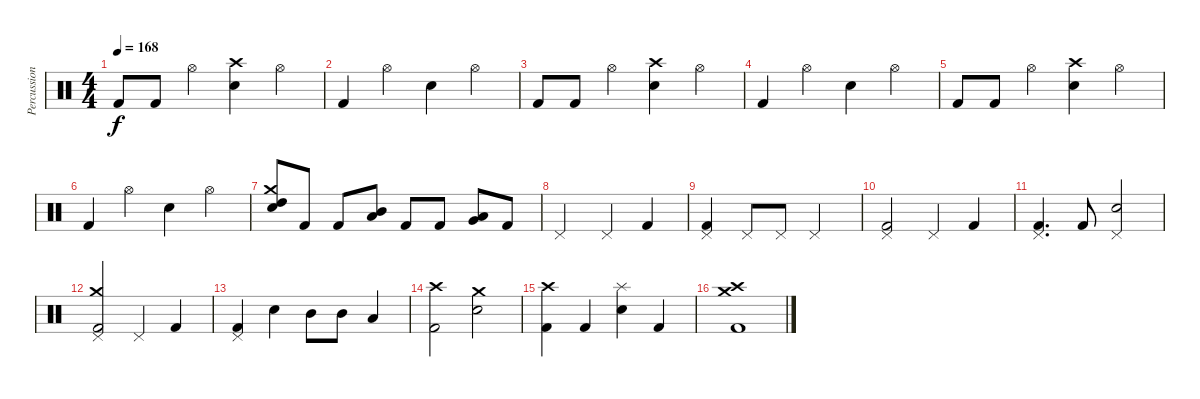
\track ("Percussions" "Percussion") {instrument percussion}
\staff {score}
\articulation defaults
\ts (4 4)
\tempo 168
\clef neutral
\ks c "Kick (hit) 2".8{dy f} "Kick (hit) 2".8 "Hi-Hat (open)".4
("Crash high (hit)" "Snare (hit) 2").4 "Hi-Hat (open)".4 |
"Kick (hit) 2".4 "Hi-Hat (open)".4 "Snare (hit) 2".4 "Hi-Hat (open)".4 |
"Kick (hit) 2".8 "Kick (hit) 2".8 "Hi-Hat (open)".4 ("Crash high (hit)" "Snare (hit) 2").4 "Hi-Hat (open)".4 |
"Kick (hit) 2".4 "Hi-Hat (open)".4 "Snare (hit) 2".4 "Hi-Hat (open)".4 |
"Kick (hit) 2".8 "Kick (hit) 2".8 "Hi-Hat (open)".4 ("Crash high (hit)" "Snare (hit) 2").4 "Hi-Hat (open)".4 |
"Kick (hit) 2".4 "Hi-Hat (open)".4 "Snare (hit) 2".4 "Hi-Hat (open)".4 |
("Crash medium (hit)" "High Tom (hit)" "Snare (hit) 2").8 "Kick (hit) 2".8 "Kick (hit) 2".8 ("Mid Tom (hit)" "Low Tom (hit)").8 "Kick (hit) 2".8 "Kick (hit) 2".8 ("Low Tom (hit)" "Very Low Tom (hit)").8 "Kick (hit) 2".8 |
"Pedal Hi-Hat (hit)".2 "Pedal Hi-Hat (hit)".4 "Kick (hit) 2".4 |
("Pedal Hi-Hat (hit)" "Kick (hit) 2").4 "Pedal Hi-Hat (hit)".8 "Pedal Hi-Hat (hit)".8 "Pedal Hi-Hat (hit)".2 |
("Pedal Hi-Hat (hit)" "Kick (hit) 2").2 "Pedal Hi-Hat (hit)".4 "Kick (hit) 2".4 |
("Pedal Hi-Hat (hit)" "Kick (hit) 2").4{d} "Kick (hit) 2".8 ("Pedal Hi-Hat (hit)" "Snare (hit) 2").2 |
("Crash medium (hit)" "Pedal Hi-Hat (hit)" "Kick (hit) 2").2 "Pedal Hi-Hat (hit)".4 "Kick (hit) 2".4 |
("Pedal Hi-Hat (hit)" "Kick (hit) 2").4 "Snare (hit) 2".4 "Mid Tom (hit)".8 "Mid Tom (hit)".8 "Low Tom (hit)".4 |
("Crash high (hit)" "Kick (hit) 2").2 ("Crash medium (hit)" "Snare (hit) 2").2 |
("Crash high (hit)" "Kick (hit) 2").4 "Kick (hit) 2".4 ("Splash (hit)" "Snare (hit) 2").4 "Kick (hit) 2".4 |
("Crash medium (hit)" "Crash high (hit)" "Kick (hit) 2").1
